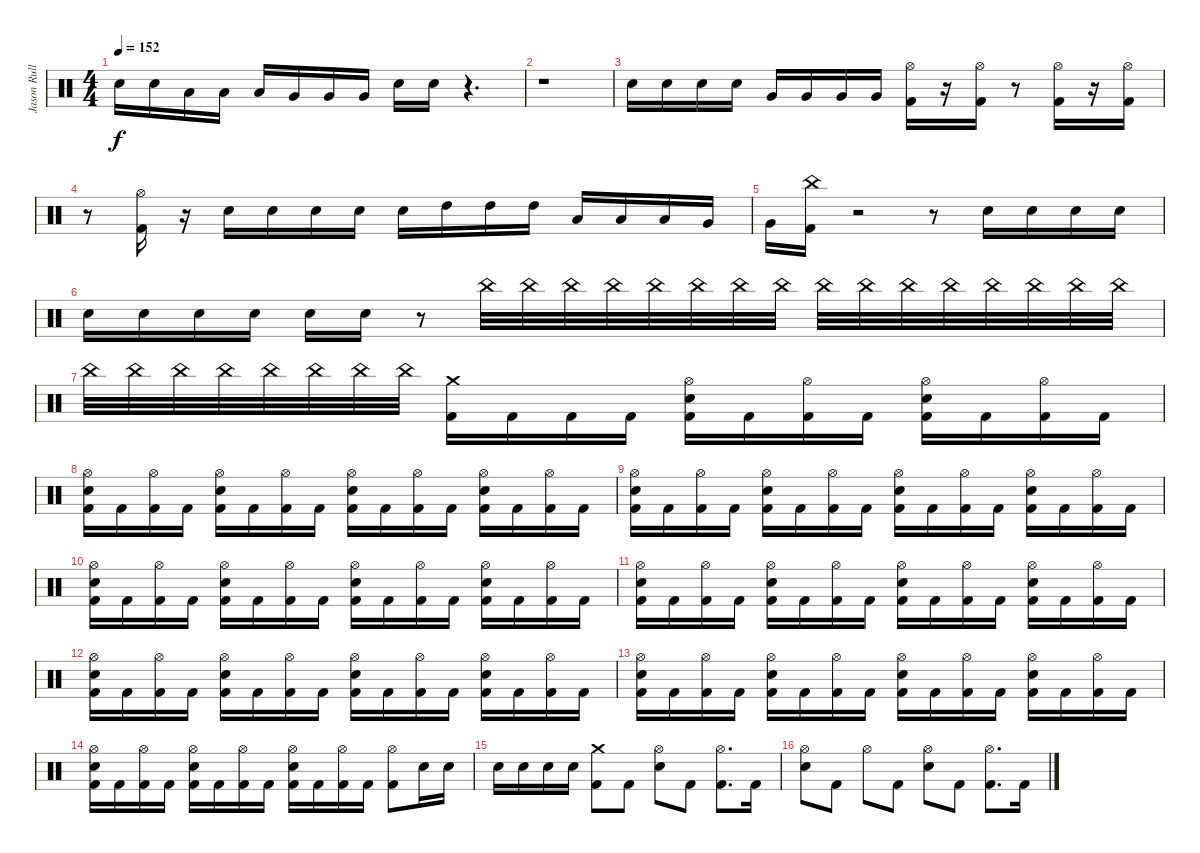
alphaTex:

\track ("Jason Rullo" "Jason Rull") {instrument percussion}
\staff {score}
\articulation defaults
\ts (4 4)
\tempo 152
\clef neutral
\ks c "Electric Snare (hit)".16{dy f} "Electric Snare (hit)".16 "Low Tom (hit)".16 "Low Tom (hit)".16 "Low Tom (hit)".16 "Very Low Tom (hit)".16 "Very Low Tom (hit)".16 "Very Low Tom (hit)".16 "Electric Snare (hit)".16 "Electric Snare (hit)".16
r.4{d} |
r.1 |
"Electric Snare (hit)".16 "Electric Snare (hit)".16 "Electric Snare (hit)".16 "Electric Snare (hit)".16 "Very Low Tom (hit)".16 "Very Low Tom (hit)".16 "Very Low Tom (hit)".16 "Very Low Tom (hit)".16 ("Hi-Hat (open)" "Kick (hit) 2").16 r.16 ("Kick (hit) 2" "Hi-Hat (open)").16 r.8 ("Hi-Hat (open)" "Kick (hit) 2").16 r.16 ("Hi-Hat (open)" "Kick (hit) 2").16 |
r.8 ("Hi-Hat (open)" "Kick (hit) 2").16 r.16 "Electric Snare (hit)".16 "Electric Snare (hit)".16 "Electric Snare (hit)".16 "Electric Snare (hit)".16 "Electric Snare (hit)".16 "High Tom (hit)".16 "High Tom (hit)".16 "High Tom (hit)".16 "Low Tom (hit)".16 "Low Tom (hit)".16 "Low Tom (hit)".16 "Very Low Tom (hit)".16 |
"Very Low Tom (hit)".16 ("China (hit)" "Kick (hit) 2").16 r.2 r.8 "Electric Snare (hit)".16 "Electric Snare (hit)".16 "Electric Snare (hit)".16 "Electric Snare (hit)".16 |
"Electric Snare (hit)".16 "Electric Snare (hit)".16 "Electric Snare (hit)".16 "Electric Snare (hit)".16 "Electric Snare (hit)".16 "Electric Snare (hit)".16 r.8 "China (hit)".32{volume 0} "China (hit)".32{volume 0} "China (hit)".32{volume 1} "China (hit)".32{volume 2} "China (hit)".32{volume 2} "China (hit)".32{volume 3} "China (hit)".32{volume 3} "China (hit)".32{volume 4} "China (hit)".32{volume 4} "China (hit)".32{volume 5} "China (hit)".32{volume 5} "China (hit)".32{volume 6} "China (hit)".32{volume 6} "China (hit)".32{volume 7} "China (hit)".32{volume 7} "China (hit)".32{volume 8} |
"China (hit)".32{volume 8} "China (hit)".32{volume 9} "China (hit)".32{volume 9} "China (hit)".32{volume 10} "China (hit)".32{volume 10} "China (hit)".32{volume 11} "China (hit)".32{volume 12} "China (hit)".32{volume 12} ("Crash medium (hit)" "Kick (hit) 2").16{volume 12} "Kick (hit) 2".16 "Kick (hit) 2".16 "Kick (hit) 2".16 ("Hi-Hat (open)" "Electric Snare (hit)" "Kick (hit) 2").16 "Kick (hit) 2".16 ("Hi-Hat (open)" "Kick (hit) 2").16 "Kick (hit) 2".16 ("Hi-Hat (open)" "Electric Snare (hit)" "Kick (hit) 2").16 "Kick (hit) 2".16 ("Hi-Hat (open)" "Kick (hit) 2").16 "Kick (hit) 2".16 |
("Hi-Hat (open)" "Electric Snare (hit)" "Kick (hit) 2").16 "Kick (hit) 2".16 ("Hi-Hat (open)" "Kick (hit) 2").16 "Kick (hit) 2".16 ("Electric Snare (hit)" "Kick (hit) 2" "Hi-Hat (open)").16 "Kick (hit) 2".16 ("Kick (hit) 2" "Hi-Hat (open)").16 "Kick (hit) 2".16 ("Electric Snare (hit)" "Kick (hit) 2" "Hi-Hat (open)").16 "Kick (hit) 2".16 ("Kick (hit) 2" "Hi-Hat (open)").16 "Kick (hit) 2".16 ("Electric Snare (hit)" "Kick (hit) 2" "Hi-Hat (open)").16 "Kick (hit) 2".16 ("Kick (hit) 2" "Hi-Hat (open)").16 "Kick (hit) 2".16 |
("Electric Snare (hit)" "Kick (hit) 2" "Hi-Hat (open)").16 "Kick (hit) 2".16 ("Kick (hit) 2" "Hi-Hat (open)").16 "Kick (hit) 2".16 ("Electric Snare (hit)" "Kick (hit) 2" "Hi-Hat (open)").16 "Kick (hit) 2".16 ("Kick (hit) 2" "Hi-Hat (open)").16 "Kick (hit) 2".16 ("Electric Snare (hit)" "Kick (hit) 2" "Hi-Hat (open)").16 "Kick (hit) 2".16 ("Kick (hit) 2" "Hi-Hat (open)").16 "Kick (hit) 2".16 ("Electric Snare (hit)" "Kick (hit) 2" "Hi-Hat (open)").16 "Kick (hit) 2".16 ("Kick (hit) 2" "Hi-Hat (open)").16 "Kick (hit) 2".16 |
("Electric Snare (hit)" "Kick (hit) 2" "Hi-Hat (open)").16 "Kick (hit) 2".16 ("Kick (hit) 2" "Hi-Hat (open)").16 "Kick (hit) 2".16 ("Electric Snare (hit)" "Kick (hit) 2" "Hi-Hat (open)").16 "Kick (hit) 2".16 ("Kick (hit) 2" "Hi-Hat (open)").16 "Kick (hit) 2".16 ("Electric Snare (hit)" "Kick (hit) 2" "Hi-Hat (open)").16 "Kick (hit) 2".16 ("Kick (hit) 2" "Hi-Hat (open)").16 "Kick (hit) 2".16 ("Electric Snare (hit)" "Kick (hit) 2" "Hi-Hat (open)").16 "Kick (hit) 2".16 ("Kick (hit) 2" "Hi-Hat (open)").16 "Kick (hit) 2".16 |
("Electric Snare (hit)" "Kick (hit) 2" "Hi-Hat (open)").16 "Kick (hit) 2".16 ("Kick (hit) 2" "Hi-Hat (open)").16 "Kick (hit) 2".16 ("Electric Snare (hit)" "Kick (hit) 2" "Hi-Hat (open)").16 "Kick (hit) 2".16 ("Kick (hit) 2" "Hi-Hat (open)").16 "Kick (hit) 2".16 ("Electric Snare (hit)" "Kick (hit) 2" "Hi-Hat (open)").16 "Kick (hit) 2".16 ("Kick (hit) 2" "Hi-Hat (open)").16 "Kick (hit) 2".16 ("Electric Snare (hit)" "Kick (hit) 2" "Hi-Hat (open)").16 "Kick (hit) 2".16 ("Kick (hit) 2" "Hi-Hat (open)").16 "Kick (hit) 2".16 |
("Electric Snare (hit)" "Kick (hit) 2" "Hi-Hat (open)").16 "Kick (hit) 2".16 ("Kick (hit) 2" "Hi-Hat (open)").16 "Kick (hit) 2".16 ("Electric Snare (hit)" "Kick (hit) 2" "Hi-Hat (open)").16 "Kick (hit) 2".16 ("Kick (hit) 2" "Hi-Hat (open)").16 "Kick (hit) 2".16 ("Electric Snare (hit)" "Kick (hit) 2" "Hi-Hat (open)").16 "Kick (hit) 2".16 ("Kick (hit) 2" "Hi-Hat (open)").16 "Kick (hit) 2".16 ("Electric Snare (hit)" "Kick (hit) 2" "Hi-Hat (open)").16 "Kick (hit) 2".16 ("Kick (hit) 2" "Hi-Hat (open)").16 "Kick (hit) 2".16 |
("Electric Snare (hit)" "Kick (hit) 2" "Hi-Hat (open)").16 "Kick (hit) 2".16 ("Kick (hit) 2" "Hi-Hat (open)").16 "Kick (hit) 2".16 ("Electric Snare (hit)" "Kick (hit) 2" "Hi-Hat (open)").16 "Kick (hit) 2".16 ("Kick (hit) 2" "Hi-Hat (open)").16 "Kick (hit) 2".16 ("Electric Snare (hit)" "Kick (hit) 2" "Hi-Hat (open)").16 "Kick (hit) 2".16 ("Kick (hit) 2" "Hi-Hat (open)").16 "Kick (hit) 2".16 ("Electric Snare (hit)" "Kick (hit) 2" "Hi-Hat (open)").16 "Kick (hit) 2".16 ("Kick (hit) 2" "Hi-Hat (open)").16 "Kick (hit) 2".16 |
("Electric Snare (hit)" "Kick (hit) 2" "Hi-Hat (open)").16 "Kick (hit) 2".16 ("Kick (hit) 2" "Hi-Hat (open)").16 "Kick (hit) 2".16 ("Electric Snare (hit)" "Kick (hit) 2" "Hi-Hat (open)").16 "Kick (hit) 2".16 ("Kick (hit) 2" "Hi-Hat (open)").16 "Kick (hit) 2".16 ("Electric Snare (hit)" "Kick (hit) 2" "Hi-Hat (open)").16 "Kick (hit) 2".16 ("Kick (hit) 2" "Hi-Hat (open)").16 "Kick (hit) 2".16 ("Hi-Hat (open)" "Kick (hit) 2").8 "Electric Snare (hit)".16 "Electric Snare (hit)".16 |
"Electric Snare (hit)".16 "Electric Snare (hit)".16 "Electric Snare (hit)".16 "Electric Snare (hit)".16 ("Crash medium (hit)" "Kick (hit) 2").8 "Kick (hit) 2".8 ("Hi-Hat (open)" "Electric Snare (hit)").8 "Kick (hit) 2".8 ("Hi-Hat (open)" "Kick (hit) 2").8{d} "Kick (hit) 2".16 |
("Hi-Hat (open)" "Electric Snare (hit)").8 "Kick (hit) 2".8 "Hi-Hat (open)".8 "Kick (hit) 2".8 ("Hi-Hat (open)" "Electric Snare (hit)").8 "Kick (hit) 2".8 ("Hi-Hat (open)" "Kick (hit) 2").8{d} "Kick (hit) 2".16
